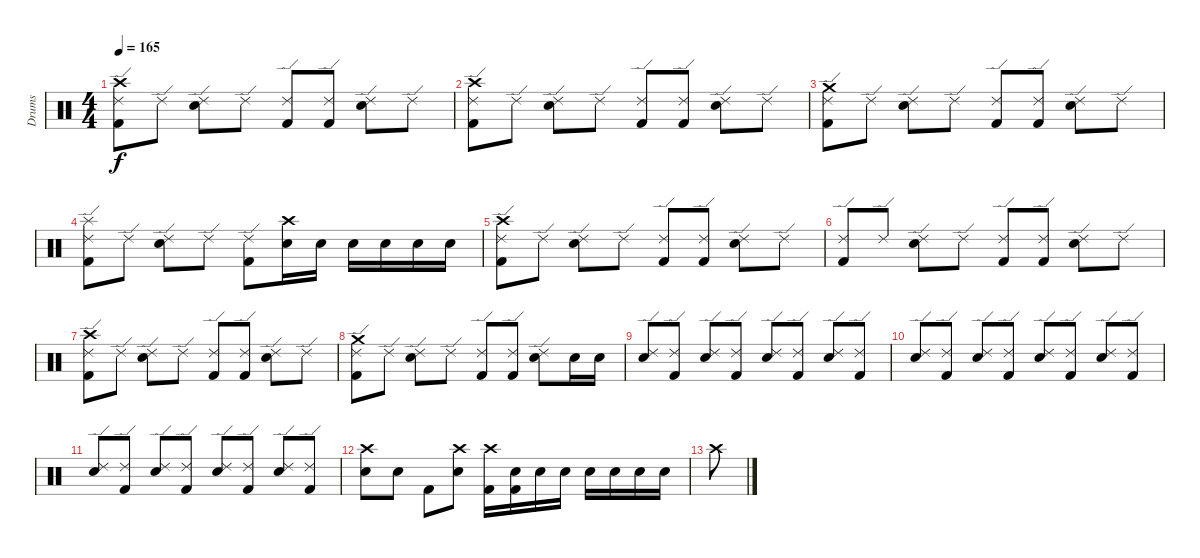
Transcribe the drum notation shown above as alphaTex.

\track ("Drums" "Drums") {instrument percussion}
\staff {score}
\articulation defaults
\ts (4 4)
\tempo 165
\clef neutral
\ks c
("Crash high (hit)" "Ride (edge) 2" "Kick (hit) 2").8{dy f} "Ride (edge) 2".8 ("Ride (edge) 2" "Snare (hit) 2").8 "Ride (edge) 2".8 ("Ride (edge) 2" "Kick (hit) 2").8 ("Ride (edge) 2" "Kick (hit) 2").8 ("Ride (edge) 2" "Snare (hit) 2").8 "Ride (edge) 2".8 |
("Crash high (hit)" "Ride (edge) 2" "Kick (hit) 2").8 "Ride (edge) 2".8 ("Ride (edge) 2" "Snare (hit) 2").8 "Ride (edge) 2".8 ("Ride (edge) 2" "Kick (hit) 2").8 ("Ride (edge) 2" "Kick (hit) 2").8 ("Ride (edge) 2" "Snare (hit) 2").8 "Ride (edge) 2".8 |
("Crash medium (hit)" "Ride (edge) 2" "Kick (hit) 2").8 "Ride (edge) 2".8 ("Ride (edge) 2" "Snare (hit) 2").8 "Ride (edge) 2".8 ("Ride (edge) 2" "Kick (hit) 2").8 ("Ride (edge) 2" "Kick (hit) 2").8 ("Ride (edge) 2" "Snare (hit) 2").8 "Ride (edge) 2".8 |
("Splash (hit)" "Ride (edge) 2" "Kick (hit) 2").8 "Ride (edge) 2".8 ("Ride (edge) 2" "Snare (hit) 2").8 "Ride (edge) 2".8 ("Ride (edge) 2" "Kick (hit) 2").8 ("Crash high (hit)" "Snare (hit) 2").16 "Snare (hit) 2".16 "Snare (hit) 2".16 "Snare (hit) 2".16 "Snare (hit) 2".16 "Snare (hit) 2".16 |
("Crash high (hit)" "Ride (edge) 2" "Kick (hit) 2").8 "Ride (edge) 2".8 ("Ride (edge) 2" "Snare (hit) 2").8 "Ride (edge) 2".8 ("Ride (edge) 2" "Kick (hit) 2").8 ("Ride (edge) 2" "Kick (hit) 2").8 ("Ride (edge) 2" "Snare (hit) 2").8 "Ride (edge) 2".8 |
("Ride (edge) 2" "Kick (hit) 2").8 "Ride (edge) 2".8 ("Ride (edge) 2" "Snare (hit) 2").8 "Ride (edge) 2".8 ("Ride (edge) 2" "Kick (hit) 2").8 ("Ride (edge) 2" "Kick (hit) 2").8 ("Ride (edge) 2" "Snare (hit) 2").8 "Ride (edge) 2".8 |
("Crash high (hit)" "Ride (edge) 2" "Kick (hit) 2").8 "Ride (edge) 2".8 ("Ride (edge) 2" "Snare (hit) 2").8 "Ride (edge) 2".8 ("Ride (edge) 2" "Kick (hit) 2").8 ("Ride (edge) 2" "Kick (hit) 2").8 ("Ride (edge) 2" "Snare (hit) 2").8 "Ride (edge) 2".8 |
("Crash medium (hit)" "Ride (edge) 2" "Kick (hit) 2").8 "Ride (edge) 2".8 ("Ride (edge) 2" "Snare (hit) 2").8 "Ride (edge) 2".8 ("Ride (edge) 2" "Kick (hit) 2").8 ("Ride (edge) 2" "Kick (hit) 2").8 ("Ride (edge) 2" "Snare (hit) 2").8 "Snare (hit) 2".16 "Snare (hit) 2".16 |
("Ride (edge) 2" "Snare (hit) 2").8 ("Ride (edge) 2" "Kick (hit) 2").8 ("Ride (edge) 2" "Snare (hit) 2").8 ("Ride (edge) 2" "Kick (hit) 2").8 ("Ride (edge) 2" "Snare (hit) 2").8 ("Ride (edge) 2" "Kick (hit) 2").8 ("Ride (edge) 2" "Snare (hit) 2").8 ("Ride (edge) 2" "Kick (hit) 2").8 |
("Ride (edge) 2" "Snare (hit) 2").8 ("Ride (edge) 2" "Kick (hit) 2").8 ("Ride (edge) 2" "Snare (hit) 2").8 ("Ride (edge) 2" "Kick (hit) 2").8 ("Ride (edge) 2" "Snare (hit) 2").8 ("Ride (edge) 2" "Kick (hit) 2").8 ("Ride (edge) 2" "Snare (hit) 2").8 ("Ride (edge) 2" "Kick (hit) 2").8 |
("Ride (edge) 2" "Snare (hit) 2").8 ("Ride (edge) 2" "Kick (hit) 2").8 ("Ride (edge) 2" "Snare (hit) 2").8 ("Ride (edge) 2" "Kick (hit) 2").8 ("Ride (edge) 2" "Snare (hit) 2").8 ("Ride (edge) 2" "Kick (hit) 2").8 ("Ride (edge) 2" "Snare (hit) 2").8 ("Ride (edge) 2" "Kick (hit) 2").8 |
("Crash high (hit)" "Snare (hit) 2").8 "Snare (hit) 2".8 "Kick (hit) 2".8 ("Crash high (hit)" "Snare (hit) 2").8 ("Crash high (hit)" "Kick (hit) 2").16 ("Snare (hit) 2" "Kick (hit) 2").16 "Snare (hit) 2".16 "Snare (hit) 2".16 "Snare (hit) 2".16 "Snare (hit) 2".16 "Snare (hit) 2".16 "Snare (hit) 2".16 |
"Crash high (hit)".8
